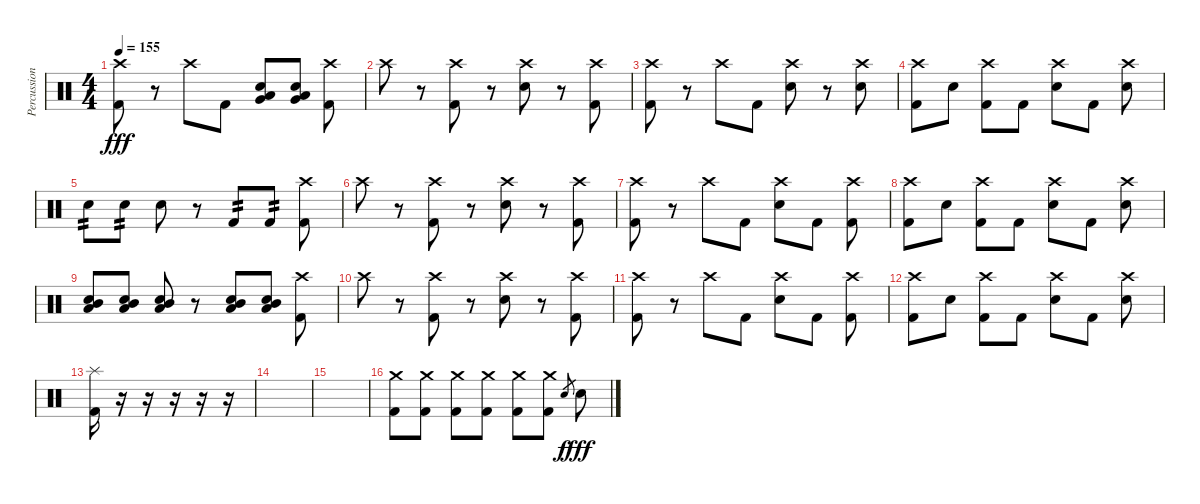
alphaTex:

\track ("Percussion" "Percussion") {instrument percussion}
\staff {score}
\articulation defaults
\ts (4 4)
\tempo 155
\clef neutral
\ks c
("Crash high (hit)" "Kick (hit) 2").8{dy fff} r.8 "Crash high (hit)".8 "Kick (hit) 2".8 ("Very Low Tom (hit)" "Low Floor Tom (hit)" "Electric Snare (hit)").8 ("Very Low Tom (hit)" "Low Floor Tom (hit)" "Electric Snare (hit)").8 ("Crash high (hit)" "Kick (hit) 2").8 |
"Crash high (hit)".8 r.8 ("Crash high (hit)" "Kick (hit) 2").8 r.8 ("Crash high (hit)" "Electric Snare (hit)").8 r.8 ("Crash high (hit)" "Kick (hit) 2").8 |
("Crash high (hit)" "Kick (hit) 2").8 r.8 "Crash high (hit)".8 "Kick (hit) 2".8 ("Crash high (hit)" "Electric Snare (hit)").8 r.8 ("Crash high (hit)" "Electric Snare (hit)").8 |
("Crash high (hit)" "Kick (hit) 2").8 "Electric Snare (hit)".8 ("Crash high (hit)" "Kick (hit) 2").8 "Kick (hit) 2".8 ("Crash high (hit)" "Electric Snare (hit)").8 "Kick (hit) 2".8 ("Crash high (hit)" "Electric Snare (hit)").8 |
"Electric Snare (hit)".8{tp 2} "Electric Snare (hit)".8{tp 2} "Electric Snare (hit)".8 r.8 "Kick (hit) 2".8{tp 2} "Kick (hit) 2".8{tp 2} ("Crash high (hit)" "Kick (hit) 2").8 |
"Crash high (hit)".8 r.8 ("Crash high (hit)" "Kick (hit) 2").8 r.8 ("Crash high (hit)" "Electric Snare (hit)").8 r.8 ("Crash high (hit)" "Kick (hit) 2").8 |
("Crash high (hit)" "Kick (hit) 2").8 r.8 "Crash high (hit)".8 "Kick (hit) 2".8 ("Crash high (hit)" "Electric Snare (hit)").8 "Kick (hit) 2".8 ("Crash high (hit)" "Kick (hit) 2").8 |
("Crash high (hit)" "Kick (hit) 2").8 "Electric Snare (hit)".8 ("Crash high (hit)" "Kick (hit) 2").8 "Kick (hit) 2".8 ("Crash high (hit)" "Electric Snare (hit)").8 "Kick (hit) 2".8 ("Crash high (hit)" "Electric Snare (hit)").8 |
("Low Floor Tom (hit)" "Mid Tom (hit)" "Electric Snare (hit)").8 ("Low Floor Tom (hit)" "Mid Tom (hit)" "Electric Snare (hit)").8 ("Low Floor Tom (hit)" "Mid Tom (hit)" "Electric Snare (hit)").8 r.8 ("Low Floor Tom (hit)" "Mid Tom (hit)" "Electric Snare (hit)").8 ("Low Floor Tom (hit)" "Mid Tom (hit)" "Electric Snare (hit)").8 ("Crash high (hit)" "Kick (hit) 2").8 |
"Crash high (hit)".8 r.8 ("Crash high (hit)" "Kick (hit) 2").8 r.8 ("Crash high (hit)" "Electric Snare (hit)").8 r.8 ("Crash high (hit)" "Kick (hit) 2").8 |
("Crash high (hit)" "Kick (hit) 2").8 r.8 "Crash high (hit)".8 "Kick (hit) 2".8 ("Crash high (hit)" "Electric Snare (hit)").8 "Kick (hit) 2".8 ("Crash high (hit)" "Kick (hit) 2").8 |
("Crash high (hit)" "Kick (hit) 2").8 "Electric Snare (hit)".8 ("Crash high (hit)" "Kick (hit) 2").8 "Kick (hit) 2".8 ("Crash high (hit)" "Electric Snare (hit)").8 "Kick (hit) 2".8 ("Crash high (hit)" "Electric Snare (hit)").8 |
("Kick (hit) 2" "Splash (hit)").16 r.16 r.16 r.16 r.16 r.16 |
|
|
("Kick (hit) 2" "Crash medium (hit)").8 ("Kick (hit) 2" "Crash medium (hit)").8 ("Kick (hit) 2" "Crash medium (hit)").8 ("Kick (hit) 2" "Crash medium (hit)").8 ("Kick (hit) 2" "Crash medium (hit)").8 ("Kick (hit) 2" "Crash medium (hit)").8 "Electric Snare (hit)".8{gr dy f} "Electric Snare (hit)".8{dy fff}
